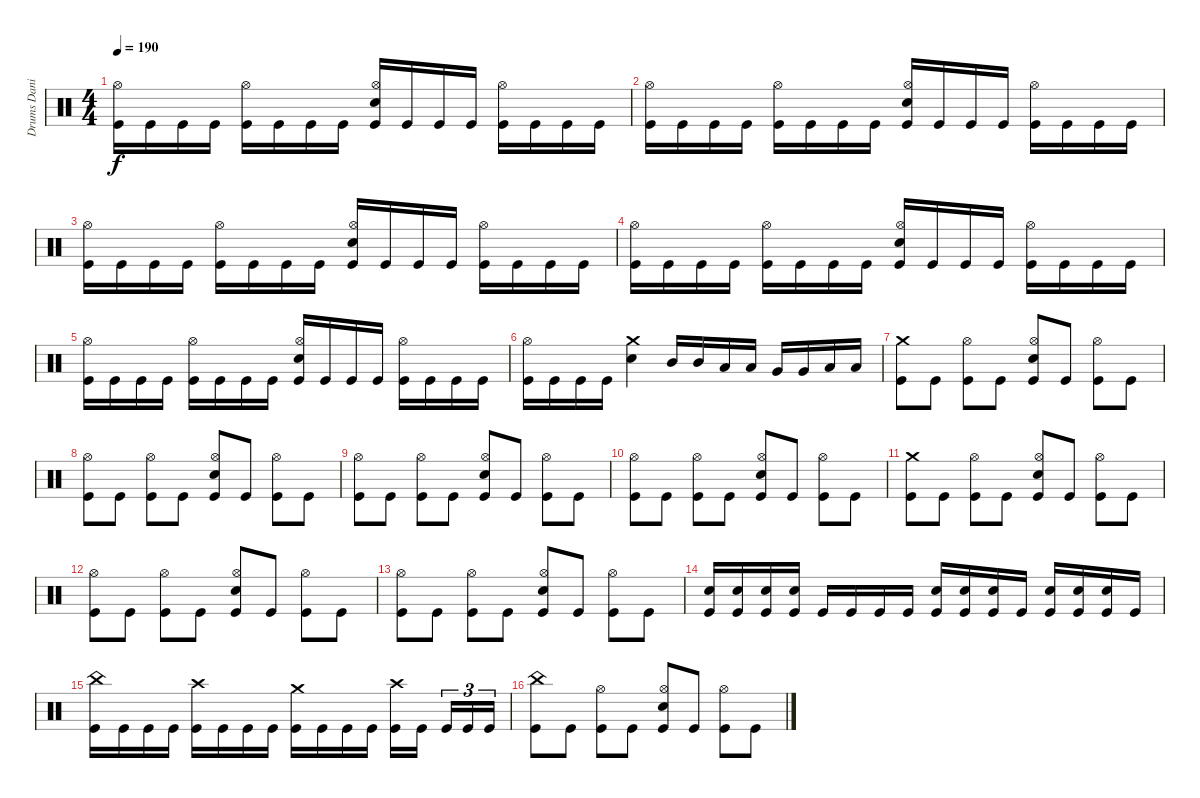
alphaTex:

\track ("Drums Daniel" "Drums Dani") {instrument percussion}
\staff {score}
\articulation defaults
\ts (4 4)
\tempo 190
\clef neutral
\ks c
("Kick (hit)" "Hi-Hat (open)").16{dy f} "Kick (hit)".16 "Kick (hit)".16 "Kick (hit)".16 ("Kick (hit)" "Hi-Hat (open)").16 "Kick (hit)".16 "Kick (hit)".16 "Kick (hit)".16 ("Kick (hit)" "Electric Snare (hit)" "Hi-Hat (open)").16 "Kick (hit)".16 "Kick (hit)".16 "Kick (hit)".16 ("Kick (hit)" "Hi-Hat (open)").16 "Kick (hit)".16 "Kick (hit)".16 "Kick (hit)".16 |
("Kick (hit)" "Hi-Hat (open)").16 "Kick (hit)".16 "Kick (hit)".16 "Kick (hit)".16 ("Kick (hit)" "Hi-Hat (open)").16 "Kick (hit)".16 "Kick (hit)".16 "Kick (hit)".16 ("Kick (hit)" "Electric Snare (hit)" "Hi-Hat (open)").16 "Kick (hit)".16 "Kick (hit)".16 "Kick (hit)".16 ("Kick (hit)" "Hi-Hat (open)").16 "Kick (hit)".16 "Kick (hit)".16 "Kick (hit)".16 |
("Kick (hit)" "Hi-Hat (open)").16 "Kick (hit)".16 "Kick (hit)".16 "Kick (hit)".16 ("Kick (hit)" "Hi-Hat (open)").16 "Kick (hit)".16 "Kick (hit)".16 "Kick (hit)".16 ("Kick (hit)" "Electric Snare (hit)" "Hi-Hat (open)").16 "Kick (hit)".16 "Kick (hit)".16 "Kick (hit)".16 ("Kick (hit)" "Hi-Hat (open)").16 "Kick (hit)".16 "Kick (hit)".16 "Kick (hit)".16 |
("Kick (hit)" "Hi-Hat (open)").16 "Kick (hit)".16 "Kick (hit)".16 "Kick (hit)".16 ("Kick (hit)" "Hi-Hat (open)").16 "Kick (hit)".16 "Kick (hit)".16 "Kick (hit)".16 ("Kick (hit)" "Electric Snare (hit)" "Hi-Hat (open)").16 "Kick (hit)".16 "Kick (hit)".16 "Kick (hit)".16 ("Kick (hit)" "Hi-Hat (open)").16 "Kick (hit)".16 "Kick (hit)".16 "Kick (hit)".16 |
("Kick (hit)" "Hi-Hat (open)").16 "Kick (hit)".16 "Kick (hit)".16 "Kick (hit)".16 ("Kick (hit)" "Hi-Hat (open)").16 "Kick (hit)".16 "Kick (hit)".16 "Kick (hit)".16 ("Kick (hit)" "Electric Snare (hit)" "Hi-Hat (open)").16 "Kick (hit)".16 "Kick (hit)".16 "Kick (hit)".16 ("Kick (hit)" "Hi-Hat (open)").16 "Kick (hit)".16 "Kick (hit)".16 "Kick (hit)".16 |
("Kick (hit)" "Hi-Hat (open)").16 "Kick (hit)".16 "Kick (hit)".16 "Kick (hit)".16 ("Electric Snare (hit)" "Crash medium (hit)").4 "Mid Tom (hit)".16 "Mid Tom (hit)".16 "Low Tom (hit)".16 "Low Tom (hit)".16 "Very Low Tom (hit)".16 "Very Low Tom (hit)".16 "Low Floor Tom (hit)".16 "Low Floor Tom (hit)".16 |
("Kick (hit)" "Crash medium (hit)").8 "Kick (hit)".8 ("Kick (hit)" "Hi-Hat (open)").8 "Kick (hit)".8 ("Kick (hit)" "Electric Snare (hit)" "Hi-Hat (open)").8 "Kick (hit)".8 ("Kick (hit)" "Hi-Hat (open)").8 "Kick (hit)".8 |
("Kick (hit)" "Hi-Hat (open)").8 "Kick (hit)".8 ("Kick (hit)" "Hi-Hat (open)").8 "Kick (hit)".8 ("Kick (hit)" "Electric Snare (hit)" "Hi-Hat (open)").8 "Kick (hit)".8 ("Kick (hit)" "Hi-Hat (open)").8 "Kick (hit)".8 |
("Kick (hit)" "Hi-Hat (open)").8 "Kick (hit)".8 ("Kick (hit)" "Hi-Hat (open)").8 "Kick (hit)".8 ("Kick (hit)" "Electric Snare (hit)" "Hi-Hat (open)").8 "Kick (hit)".8 ("Kick (hit)" "Hi-Hat (open)").8 "Kick (hit)".8 |
("Kick (hit)" "Hi-Hat (open)").8 "Kick (hit)".8 ("Kick (hit)" "Hi-Hat (open)").8 "Kick (hit)".8 ("Kick (hit)" "Electric Snare (hit)" "Hi-Hat (open)").8 "Kick (hit)".8 ("Kick (hit)" "Hi-Hat (open)").8 "Kick (hit)".8 |
("Kick (hit)" "Crash medium (hit)").8 "Kick (hit)".8 ("Kick (hit)" "Hi-Hat (open)").8 "Kick (hit)".8 ("Kick (hit)" "Electric Snare (hit)" "Hi-Hat (open)").8 "Kick (hit)".8 ("Kick (hit)" "Hi-Hat (open)").8 "Kick (hit)".8 |
("Kick (hit)" "Hi-Hat (open)").8 "Kick (hit)".8 ("Kick (hit)" "Hi-Hat (open)").8 "Kick (hit)".8 ("Kick (hit)" "Electric Snare (hit)" "Hi-Hat (open)").8 "Kick (hit)".8 ("Kick (hit)" "Hi-Hat (open)").8 "Kick (hit)".8 |
("Kick (hit)" "Hi-Hat (open)").8 "Kick (hit)".8 ("Kick (hit)" "Hi-Hat (open)").8 "Kick (hit)".8 ("Kick (hit)" "Electric Snare (hit)" "Hi-Hat (open)").8 "Kick (hit)".8 ("Kick (hit)" "Hi-Hat (open)").8 "Kick (hit)".8 |
("Kick (hit)" "Electric Snare (hit)").16 ("Kick (hit)" "Electric Snare (hit)").16 ("Kick (hit)" "Electric Snare (hit)").16 ("Kick (hit)" "Electric Snare (hit)").16 "Kick (hit)".16 "Kick (hit)".16 "Kick (hit)".16 "Kick (hit)".16 ("Kick (hit)" "Electric Snare (hit)").16 ("Kick (hit)" "Electric Snare (hit)").16 ("Kick (hit)" "Electric Snare (hit)").16 "Kick (hit)".16 ("Kick (hit)" "Electric Snare (hit)").16 ("Kick (hit)" "Electric Snare (hit)").16 ("Kick (hit)" "Electric Snare (hit)").16 "Kick (hit)".16 |
("Kick (hit)" "China (hit)").16 "Kick (hit)".16 "Kick (hit)".16 "Kick (hit)".16 ("Kick (hit)" "Crash high (hit)").16 "Kick (hit)".16 "Kick (hit)".16 "Kick (hit)".16 ("Kick (hit)" "Crash medium (hit)").16 "Kick (hit)".16 "Kick (hit)".16 "Kick (hit)".16 ("Kick (hit)" "Crash high (hit)").16 "Kick (hit)".16 "Kick (hit)".16{tu (3 2)} "Kick (hit)".16{tu (3 2)} "Kick (hit)".16{tu (3 2)} |
("Kick (hit)" "China (hit)").8 "Kick (hit)".8 ("Kick (hit)" "Hi-Hat (open)").8 "Kick (hit)".8 ("Kick (hit)" "Electric Snare (hit)" "Hi-Hat (open)").8 "Kick (hit)".8 ("Kick (hit)" "Hi-Hat (open)").8 "Kick (hit)".8
